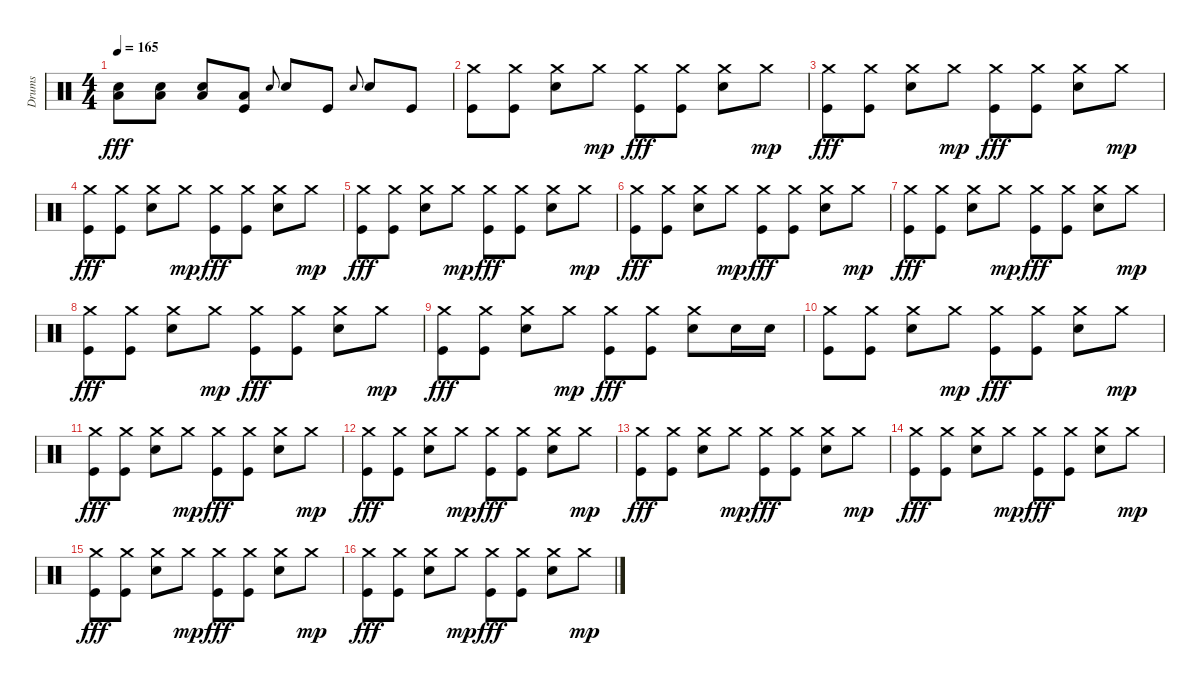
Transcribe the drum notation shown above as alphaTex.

\track ("Drums" "Drums") {instrument percussion}
\staff {score}
\articulation defaults
\ts (4 4)
\tempo 165
\clef neutral
\ks c
("Snare (hit) 2" "Low Tom (hit)").8{dy fff} ("Snare (hit) 2" "Low Tom (hit)").8 ("Snare (hit) 2" "Low Tom (hit)").8 ("Low Tom (hit)" "Kick (hit)").8 "Snare (hit) 2".8{gr onbeat} "Snare (hit) 2".8 "Kick (hit)".8 "Snare (hit) 2".8{gr onbeat} "Snare (hit) 2".8 "Kick (hit)".8 |
("Crash medium (hit)" "Kick (hit)").8 ("Crash medium (hit)" "Kick (hit)").8 ("Crash medium (hit)" "Snare (hit) 2").8 "Crash medium (hit)".8{dy mp} ("Crash medium (hit)" "Kick (hit)").8{dy fff} ("Crash medium (hit)" "Kick (hit)").8 ("Crash medium (hit)" "Snare (hit) 2").8 "Crash medium (hit)".8{dy mp} |
("Crash medium (hit)" "Kick (hit)").8{dy fff} ("Crash medium (hit)" "Kick (hit)").8 ("Crash medium (hit)" "Snare (hit) 2").8 "Crash medium (hit)".8{dy mp} ("Crash medium (hit)" "Kick (hit)").8{dy fff} ("Crash medium (hit)" "Kick (hit)").8 ("Crash medium (hit)" "Snare (hit) 2").8 "Crash medium (hit)".8{dy mp} |
("Crash medium (hit)" "Kick (hit)").8{dy fff} ("Crash medium (hit)" "Kick (hit)").8 ("Crash medium (hit)" "Snare (hit) 2").8 "Crash medium (hit)".8{dy mp} ("Crash medium (hit)" "Kick (hit)").8{dy fff} ("Crash medium (hit)" "Kick (hit)").8 ("Crash medium (hit)" "Snare (hit) 2").8 "Crash medium (hit)".8{dy mp} |
("Crash medium (hit)" "Kick (hit)").8{dy fff} ("Crash medium (hit)" "Kick (hit)").8 ("Crash medium (hit)" "Snare (hit) 2").8 "Crash medium (hit)".8{dy mp} ("Crash medium (hit)" "Kick (hit)").8{dy fff} ("Crash medium (hit)" "Kick (hit)").8 ("Crash medium (hit)" "Snare (hit) 2").8 "Crash medium (hit)".8{dy mp} |
("Crash medium (hit)" "Kick (hit)").8{dy fff} ("Crash medium (hit)" "Kick (hit)").8 ("Crash medium (hit)" "Snare (hit) 2").8 "Crash medium (hit)".8{dy mp} ("Crash medium (hit)" "Kick (hit)").8{dy fff} ("Crash medium (hit)" "Kick (hit)").8 ("Crash medium (hit)" "Snare (hit) 2").8 "Crash medium (hit)".8{dy mp} |
("Crash medium (hit)" "Kick (hit)").8{dy fff} ("Crash medium (hit)" "Kick (hit)").8 ("Crash medium (hit)" "Snare (hit) 2").8 "Crash medium (hit)".8{dy mp} ("Crash medium (hit)" "Kick (hit)").8{dy fff} ("Crash medium (hit)" "Kick (hit)").8 ("Crash medium (hit)" "Snare (hit) 2").8 "Crash medium (hit)".8{dy mp} |
("Crash medium (hit)" "Kick (hit)").8{dy fff} ("Crash medium (hit)" "Kick (hit)").8 ("Crash medium (hit)" "Snare (hit) 2").8 "Crash medium (hit)".8{dy mp} ("Crash medium (hit)" "Kick (hit)").8{dy fff} ("Crash medium (hit)" "Kick (hit)").8 ("Crash medium (hit)" "Snare (hit) 2").8 "Crash medium (hit)".8{dy mp} |
("Crash medium (hit)" "Kick (hit)").8{dy fff} ("Crash medium (hit)" "Kick (hit)").8 ("Crash medium (hit)" "Snare (hit) 2").8 "Crash medium (hit)".8{dy mp} ("Crash medium (hit)" "Kick (hit)").8{dy fff} ("Crash medium (hit)" "Kick (hit)").8 ("Crash medium (hit)" "Snare (hit) 2").8 "Snare (hit) 2".16 "Snare (hit) 2".16 |
("Crash medium (hit)" "Kick (hit)").8 ("Crash medium (hit)" "Kick (hit)").8 ("Crash medium (hit)" "Snare (hit) 2").8 "Crash medium (hit)".8{dy mp} ("Crash medium (hit)" "Kick (hit)").8{dy fff} ("Crash medium (hit)" "Kick (hit)").8 ("Crash medium (hit)" "Snare (hit) 2").8 "Crash medium (hit)".8{dy mp} |
("Crash medium (hit)" "Kick (hit)").8{dy fff} ("Crash medium (hit)" "Kick (hit)").8 ("Crash medium (hit)" "Snare (hit) 2").8 "Crash medium (hit)".8{dy mp} ("Crash medium (hit)" "Kick (hit)").8{dy fff} ("Crash medium (hit)" "Kick (hit)").8 ("Crash medium (hit)" "Snare (hit) 2").8 "Crash medium (hit)".8{dy mp} |
("Crash medium (hit)" "Kick (hit)").8{dy fff} ("Crash medium (hit)" "Kick (hit)").8 ("Crash medium (hit)" "Snare (hit) 2").8 "Crash medium (hit)".8{dy mp} ("Crash medium (hit)" "Kick (hit)").8{dy fff} ("Crash medium (hit)" "Kick (hit)").8 ("Crash medium (hit)" "Snare (hit) 2").8 "Crash medium (hit)".8{dy mp} |
("Crash medium (hit)" "Kick (hit)").8{dy fff} ("Crash medium (hit)" "Kick (hit)").8 ("Crash medium (hit)" "Snare (hit) 2").8 "Crash medium (hit)".8{dy mp} ("Crash medium (hit)" "Kick (hit)").8{dy fff} ("Crash medium (hit)" "Kick (hit)").8 ("Crash medium (hit)" "Snare (hit) 2").8 "Crash medium (hit)".8{dy mp} |
("Crash medium (hit)" "Kick (hit)").8{dy fff} ("Crash medium (hit)" "Kick (hit)").8 ("Crash medium (hit)" "Snare (hit) 2").8 "Crash medium (hit)".8{dy mp} ("Crash medium (hit)" "Kick (hit)").8{dy fff} ("Crash medium (hit)" "Kick (hit)").8 ("Crash medium (hit)" "Snare (hit) 2").8 "Crash medium (hit)".8{dy mp} |
("Crash medium (hit)" "Kick (hit)").8{dy fff} ("Crash medium (hit)" "Kick (hit)").8 ("Crash medium (hit)" "Snare (hit) 2").8 "Crash medium (hit)".8{dy mp} ("Crash medium (hit)" "Kick (hit)").8{dy fff} ("Crash medium (hit)" "Kick (hit)").8 ("Crash medium (hit)" "Snare (hit) 2").8 "Crash medium (hit)".8{dy mp} |
("Crash medium (hit)" "Kick (hit)").8{dy fff} ("Crash medium (hit)" "Kick (hit)").8 ("Crash medium (hit)" "Snare (hit) 2").8 "Crash medium (hit)".8{dy mp} ("Crash medium (hit)" "Kick (hit)").8{dy fff} ("Crash medium (hit)" "Kick (hit)").8 ("Crash medium (hit)" "Snare (hit) 2").8 "Crash medium (hit)".8{dy mp}
